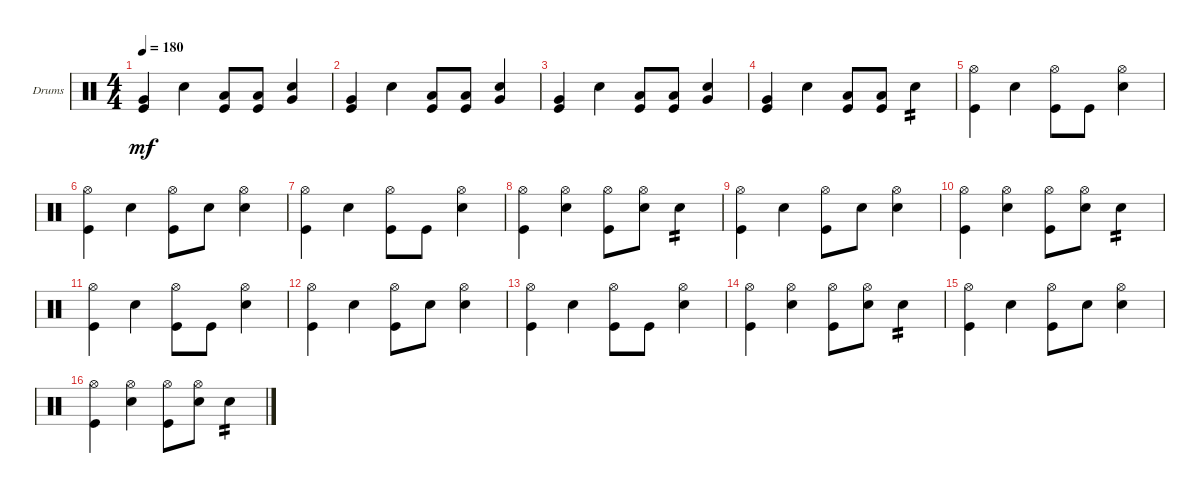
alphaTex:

\bracketExtendMode groupsimilarinstruments
\firstSystemTrackNameOrientation horizontal
\otherSystemsTrackNameOrientation horizontal
\track ("Drumkit" "Drums") {instrument percussion}
\staff {score}
\articulation defaults
\ts (4 4)
\tempo 180
\clef neutral
\scale
0.333333
\ks c
("Kick (hit)" "Very Low Tom (hit)").4{dy mf} "Snare (hit) 2".4 ("Kick (hit)" "Low Tom (hit)").8 ("Kick (hit)" "Low Tom (hit)").8 ("Snare (hit) 2" "Very Low Tom (hit)").4 |
\scale
0.333333 ("Kick (hit)" "Very Low Tom (hit)").4 "Snare (hit) 2".4 ("Kick (hit)" "Low Tom (hit)").8 ("Kick (hit)" "Low Tom (hit)").8 ("Snare (hit) 2" "Very Low Tom (hit)").4 |
\scale
0.333333 ("Kick (hit)" "Very Low Tom (hit)").4 "Snare (hit) 2".4 ("Kick (hit)" "Low Tom (hit)").8 ("Kick (hit)" "Low Tom (hit)").8 ("Snare (hit) 2" "Very Low Tom (hit)").4 |
\scale
0.333333 ("Kick (hit)" "Very Low Tom (hit)").4 "Snare (hit) 2".4 ("Kick (hit)" "Low Tom (hit)").8 ("Kick (hit)" "Low Tom (hit)").8 "Snare (hit) 2".4{tp 2} |
\scale
0.333333 ("Kick (hit)" "Hi-Hat (open)").4 "Snare (hit) 2".4 ("Kick (hit)" "Hi-Hat (open)").8 "Kick (hit)".8 ("Snare (hit) 2" "Hi-Hat (open)").4 |
\scale
0.333333 ("Kick (hit)" "Hi-Hat (open)").4 "Snare (hit) 2".4 ("Kick (hit)" "Hi-Hat (open)").8 "Snare (hit) 2".8 ("Snare (hit) 2" "Hi-Hat (open)").4 |
\scale
0.333333 ("Kick (hit)" "Hi-Hat (open)").4 "Snare (hit) 2".4 ("Kick (hit)" "Hi-Hat (open)").8 "Kick (hit)".8 ("Snare (hit) 2" "Hi-Hat (open)").4 |
\scale
0.333333 ("Kick (hit)" "Hi-Hat (open)").4 ("Snare (hit) 2" "Hi-Hat (open)").4 ("Kick (hit)" "Hi-Hat (open)").8 ("Snare (hit) 2" "Hi-Hat (open)").8 "Snare (hit) 2".4{tp 2} |
\scale
0.333333 ("Kick (hit)" "Hi-Hat (open)").4 "Snare (hit) 2".4 ("Kick (hit)" "Hi-Hat (open)").8 "Snare (hit) 2".8 ("Snare (hit) 2" "Hi-Hat (open)").4 |
\scale
0.333333 ("Kick (hit)" "Hi-Hat (open)").4 ("Snare (hit) 2" "Hi-Hat (open)").4 ("Kick (hit)" "Hi-Hat (open)").8 ("Snare (hit) 2" "Hi-Hat (open)").8 "Snare (hit) 2".4{tp 2} |
\scale
0.333333 ("Kick (hit)" "Hi-Hat (open)").4 "Snare (hit) 2".4 ("Kick (hit)" "Hi-Hat (open)").8 "Kick (hit)".8 ("Snare (hit) 2" "Hi-Hat (open)").4 |
\scale
0.333333 ("Kick (hit)" "Hi-Hat (open)").4 "Snare (hit) 2".4 ("Kick (hit)" "Hi-Hat (open)").8 "Snare (hit) 2".8 ("Snare (hit) 2" "Hi-Hat (open)").4 |
\scale
0.333333 ("Kick (hit)" "Hi-Hat (open)").4 "Snare (hit) 2".4 ("Kick (hit)" "Hi-Hat (open)").8 "Kick (hit)".8 ("Snare (hit) 2" "Hi-Hat (open)").4 |
\scale
0.333333 ("Kick (hit)" "Hi-Hat (open)").4 ("Snare (hit) 2" "Hi-Hat (open)").4 ("Kick (hit)" "Hi-Hat (open)").8 ("Snare (hit) 2" "Hi-Hat (open)").8 "Snare (hit) 2".4{tp 2} |
\scale
0.333333 ("Kick (hit)" "Hi-Hat (open)").4 "Snare (hit) 2".4 ("Kick (hit)" "Hi-Hat (open)").8 "Snare (hit) 2".8 ("Snare (hit) 2" "Hi-Hat (open)").4 |
\scale
0.333333 ("Kick (hit)" "Hi-Hat (open)").4 ("Snare (hit) 2" "Hi-Hat (open)").4 ("Kick (hit)" "Hi-Hat (open)").8 ("Snare (hit) 2" "Hi-Hat (open)").8 "Snare (hit) 2".4{tp 2}
